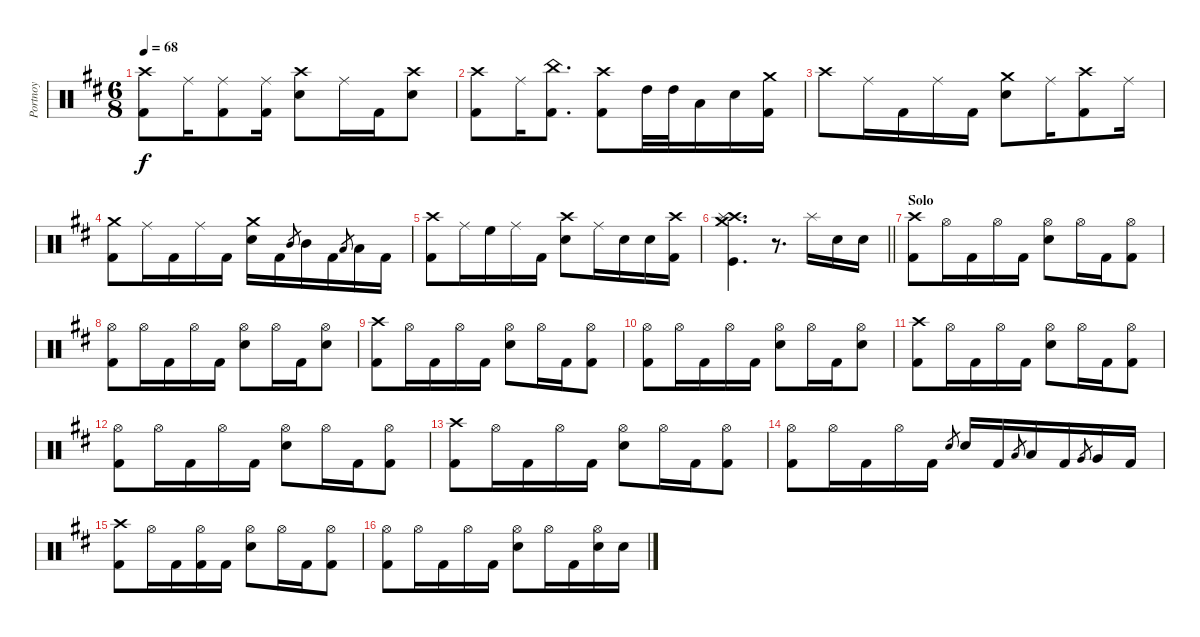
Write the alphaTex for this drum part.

\track ("Portnoy" "Portnoy") {instrument percussion}
\staff {score}
\articulation defaults
\ts (6 8)
\tempo 68
\clef neutral
\ks d
("Crash high (hit)" "Kick (hit) 2").8{dy f} "Ride (middle)".16 ("Ride (middle)" "Kick (hit) 2").8 ("Ride (middle)" "Kick (hit) 2").16 ("Snare (hit) 2" "Crash high (hit)").8 "Ride (middle)".16 "Kick (hit) 2".16 ("Crash high (hit)" "Snare (hit) 2").8 |
("Crash high (hit)" "Kick (hit) 2").8 "Ride (middle)".16 ("China (hit)" "Kick (hit) 2").8{d} ("Crash high (hit)" "Kick (hit) 2").8 "High Tom (hit)".32 "High Tom (hit)".32 "Low Tom (hit)".16 "Snare (hit) 2".16 ("Crash medium (hit)" "Kick (hit) 2").16 |
"Crash high (hit)".8 "Ride (middle)".16 "Kick (hit) 2".16 "Ride (middle)".16 "Kick (hit) 2".16 ("Crash medium (hit)" "Snare (hit) 2").8 "Ride (middle)".16 ("Crash high (hit)" "Kick (hit) 2").8 "Ride (middle)".16 |
("Crash medium (hit)" "Kick (hit) 2").8 "Ride (middle)".16 "Kick (hit) 2".16 "Ride (middle)".16 "Kick (hit) 2".16 ("Crash medium (hit)" "Snare (hit) 2").16 "Kick (hit) 2".16 "Mid Tom (hit)".8{gr} "Mid Tom (hit)".16 "Kick (hit) 2".16 "Low Tom (hit)".8{gr} "Low Tom (hit)".16 "Kick (hit) 2".16 |
("Crash high (hit)" "Kick (hit) 2").8 "Ride (middle)".16 "High Floor Tom (hit)".16 "Ride (middle)".16 "Kick (hit) 2".16 ("Crash high (hit)" "Snare (hit) 2").8 "Ride (middle)".16 "Snare (hit) 2".16 "Snare (hit) 2".16 ("Crash high (hit)" "Kick (hit) 2").16 |
\barLineRight lightlight
("Kick (hit)" "Crash medium (hit)" "Crash high (hit)" "Splash (hit)").4{d} r.8{d} "Splash (hit)".16 "Snare (hit) 2".16 "Snare (hit) 2".16 |
\section ("" "Solo")
("Crash high (hit)" "Kick (hit) 2").8 "Hi-Hat (open)".16 "Kick (hit) 2".16 "Hi-Hat (open)".16 "Kick (hit) 2".16 ("Hi-Hat (open)" "Snare (hit) 2").8 "Hi-Hat (open)".16 "Kick (hit) 2".16 ("Kick (hit) 2" "Hi-Hat (open)").8 |
("Hi-Hat (open)" "Kick (hit) 2").8 "Hi-Hat (open)".16 "Kick (hit) 2".16 "Hi-Hat (open)".16 "Kick (hit) 2".16 ("Hi-Hat (open)" "Snare (hit) 2").8 "Hi-Hat (open)".16 "Kick (hit) 2".16 ("Hi-Hat (open)" "Snare (hit) 2").8 |
("Crash high (hit)" "Kick (hit) 2").8 "Hi-Hat (open)".16 "Kick (hit) 2".16 "Hi-Hat (open)".16 "Kick (hit) 2".16 ("Hi-Hat (open)" "Snare (hit) 2").8 "Hi-Hat (open)".16 "Kick (hit) 2".16 ("Kick (hit) 2" "Hi-Hat (open)").8 |
("Hi-Hat (open)" "Kick (hit) 2").8 "Hi-Hat (open)".16 "Kick (hit) 2".16 "Hi-Hat (open)".16 "Kick (hit) 2".16 ("Hi-Hat (open)" "Snare (hit) 2").8 "Hi-Hat (open)".16 "Kick (hit) 2".16 ("Hi-Hat (open)" "Snare (hit) 2").8 |
("Crash high (hit)" "Kick (hit) 2").8 "Hi-Hat (open)".16 "Kick (hit) 2".16 "Hi-Hat (open)".16 "Kick (hit) 2".16 ("Hi-Hat (open)" "Snare (hit) 2").8 "Hi-Hat (open)".16 "Kick (hit) 2".16 ("Kick (hit) 2" "Hi-Hat (open)").8 |
("Hi-Hat (open)" "Kick (hit) 2").8 "Hi-Hat (open)".16 "Kick (hit) 2".16 "Hi-Hat (open)".16 "Kick (hit) 2".16 ("Hi-Hat (open)" "Snare (hit) 2").8 "Hi-Hat (open)".16 "Kick (hit) 2".16 ("Hi-Hat (open)" "Kick (hit) 2").8 |
("Crash high (hit)" "Kick (hit) 2").8 "Hi-Hat (open)".16 "Kick (hit) 2".16 "Hi-Hat (open)".16 "Kick (hit) 2".16 ("Hi-Hat (open)" "Snare (hit) 2").8 "Hi-Hat (open)".16 "Kick (hit) 2".16 ("Kick (hit) 2" "Hi-Hat (open)").8 |
("Hi-Hat (open)" "Kick (hit) 2").8 "Hi-Hat (open)".16 "Kick (hit) 2".16 "Hi-Hat (open)".16 "Kick (hit) 2".16 "Snare (hit) 2".8{gr} "Snare (hit) 2".16 "Kick (hit) 2".16 "Low Tom (hit)".8{gr} "Low Tom (hit)".16 "Kick (hit) 2".16 "Very Low Tom (hit)".8{gr} "Very Low Tom (hit)".16 "Kick (hit) 2".16 |
("Crash high (hit)" "Kick (hit) 2").8 "Hi-Hat (open)".16 "Kick (hit) 2".16 ("Hi-Hat (open)" "Kick (hit) 2").16 "Kick (hit) 2".16 ("Hi-Hat (open)" "Snare (hit) 2").8 "Hi-Hat (open)".16 "Kick (hit) 2".16 ("Kick (hit) 2" "Hi-Hat (open)").8 |
("Hi-Hat (open)" "Kick (hit) 2").8 "Hi-Hat (open)".16 "Kick (hit) 2".16 "Hi-Hat (open)".16 "Kick (hit) 2".16 ("Hi-Hat (open)" "Snare (hit) 2").8 "Hi-Hat (open)".16 "Kick (hit) 2".16 ("Hi-Hat (open)" "Snare (hit) 2").16 "Snare (hit) 2".16
